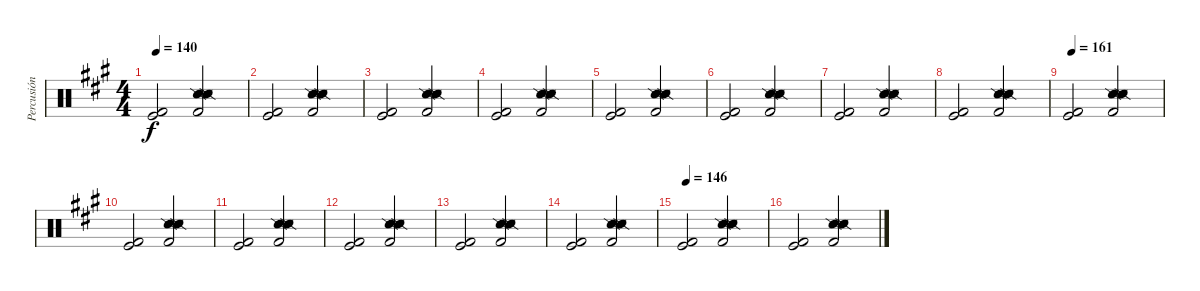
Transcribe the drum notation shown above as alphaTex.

\track ("Percusión" "Percusión") {instrument percussion}
\staff {score}
\articulation defaults
\ts (4 4)
\tempo 140
\clef neutral
\ks a
("Kick (hit) 2" "Kick (hit)").2{dy f} ("Snare (side stick) 2" "Metronome (hit)" "Kick (hit) 2" "Snare (side stick) 2").2 |
("Kick (hit) 2" "Kick (hit)").2 ("Snare (side stick) 2" "Metronome (hit)" "Kick (hit) 2" "Snare (side stick) 2").2 |
("Kick (hit) 2" "Kick (hit)").2 ("Snare (side stick) 2" "Metronome (hit)" "Kick (hit) 2" "Snare (side stick) 2").2 |
("Kick (hit) 2" "Kick (hit)").2 ("Snare (side stick) 2" "Metronome (hit)" "Kick (hit) 2" "Snare (side stick) 2").2 |
("Kick (hit) 2" "Kick (hit)").2 ("Snare (side stick) 2" "Metronome (hit)" "Kick (hit) 2" "Snare (side stick) 2").2 |
("Kick (hit) 2" "Kick (hit)").2 ("Snare (side stick) 2" "Metronome (hit)" "Kick (hit) 2" "Snare (side stick) 2").2 |
("Kick (hit) 2" "Kick (hit)").2 ("Snare (side stick) 2" "Metronome (hit)" "Kick (hit) 2" "Snare (side stick) 2").2 |
("Kick (hit) 2" "Kick (hit)").2 ("Snare (side stick) 2" "Metronome (hit)" "Kick (hit) 2" "Snare (side stick) 2").2 |
\tempo 161
("Kick (hit) 2" "Kick (hit)").2{volume 8 balance 4} ("Snare (side stick) 2" "Metronome (hit)" "Kick (hit) 2" "Snare (side stick) 2").2 |
("Kick (hit) 2" "Kick (hit)").2 ("Snare (side stick) 2" "Metronome (hit)" "Kick (hit) 2" "Snare (side stick) 2").2 |
("Kick (hit) 2" "Kick (hit)").2 ("Snare (side stick) 2" "Metronome (hit)" "Kick (hit) 2" "Snare (side stick) 2").2 |
("Kick (hit) 2" "Kick (hit)").2 ("Snare (side stick) 2" "Metronome (hit)" "Kick (hit) 2" "Snare (side stick) 2").2 |
("Kick (hit) 2" "Kick (hit)").2 ("Snare (side stick) 2" "Metronome (hit)" "Kick (hit) 2" "Snare (side stick) 2").2 |
("Kick (hit) 2" "Kick (hit)").2 ("Snare (side stick) 2" "Metronome (hit)" "Kick (hit) 2" "Snare (side stick) 2").2 |
\tempo 146
("Kick (hit) 2" "Kick (hit)").2{volume 6 balance 4} ("Snare (side stick) 2" "Metronome (hit)" "Kick (hit) 2" "Snare (side stick) 2").2 |
("Kick (hit) 2" "Kick (hit)").2 ("Snare (side stick) 2" "Metronome (hit)" "Kick (hit) 2" "Snare (side stick) 2").2
